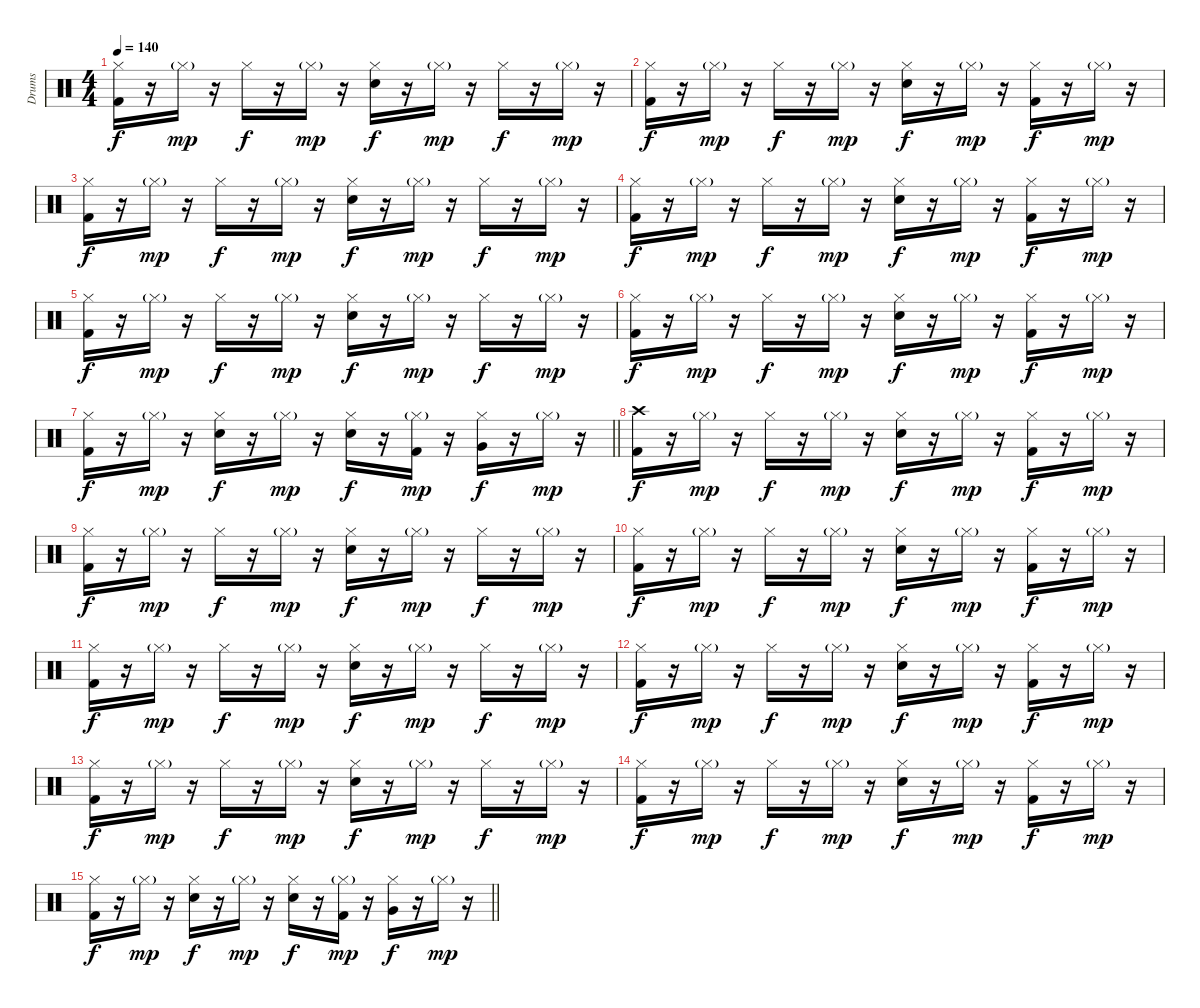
\track ("Drums" "Drums") {instrument percussion}
\staff {score}
\articulation defaults
\ts (4 4)
\tempo 140
\clef neutral
\ks c
("Hi-Hat (closed)" "Kick (hit) 2").16{dy f} r.16 "Hi-Hat (closed)"{g}.16{dy mp} r.16 "Hi-Hat (closed)".16{dy f} r.16 "Hi-Hat (closed)"{g}.16{dy mp} r.16 ("Hi-Hat (closed)" "Snare (hit) 2").16{dy f} r.16 "Hi-Hat (closed)"{g}.16{dy mp} r.16 "Hi-Hat (closed)".16{dy f} r.16 "Hi-Hat (closed)"{g}.16{dy mp} r.16 |
("Hi-Hat (closed)" "Kick (hit) 2").16{dy f} r.16 "Hi-Hat (closed)"{g}.16{dy mp} r.16 "Hi-Hat (closed)".16{dy f} r.16 "Hi-Hat (closed)"{g}.16{dy mp} r.16 ("Hi-Hat (closed)" "Snare (hit) 2").16{dy f} r.16 "Hi-Hat (closed)"{g}.16{dy mp} r.16 ("Hi-Hat (closed)" "Kick (hit) 2").16{dy f} r.16 "Hi-Hat (closed)"{g}.16{dy mp} r.16 |
("Hi-Hat (closed)" "Kick (hit) 2").16{dy f} r.16 "Hi-Hat (closed)"{g}.16{dy mp} r.16 "Hi-Hat (closed)".16{dy f} r.16 "Hi-Hat (closed)"{g}.16{dy mp} r.16 ("Hi-Hat (closed)" "Snare (hit) 2").16{dy f} r.16 "Hi-Hat (closed)"{g}.16{dy mp} r.16 "Hi-Hat (closed)".16{dy f} r.16 "Hi-Hat (closed)"{g}.16{dy mp} r.16 |
("Hi-Hat (closed)" "Kick (hit) 2").16{dy f} r.16 "Hi-Hat (closed)"{g}.16{dy mp} r.16 "Hi-Hat (closed)".16{dy f} r.16 "Hi-Hat (closed)"{g}.16{dy mp} r.16 ("Hi-Hat (closed)" "Snare (hit) 2").16{dy f} r.16 "Hi-Hat (closed)"{g}.16{dy mp} r.16 ("Hi-Hat (closed)" "Kick (hit) 2").16{dy f} r.16 "Hi-Hat (closed)"{g}.16{dy mp} r.16 |
("Hi-Hat (closed)" "Kick (hit) 2").16{dy f} r.16 "Hi-Hat (closed)"{g}.16{dy mp} r.16 "Hi-Hat (closed)".16{dy f} r.16 "Hi-Hat (closed)"{g}.16{dy mp} r.16 ("Hi-Hat (closed)" "Snare (hit) 2").16{dy f} r.16 "Hi-Hat (closed)"{g}.16{dy mp} r.16 "Hi-Hat (closed)".16{dy f} r.16 "Hi-Hat (closed)"{g}.16{dy mp} r.16 |
("Hi-Hat (closed)" "Kick (hit) 2").16{dy f} r.16 "Hi-Hat (closed)"{g}.16{dy mp} r.16 "Hi-Hat (closed)".16{dy f} r.16 "Hi-Hat (closed)"{g}.16{dy mp} r.16 ("Hi-Hat (closed)" "Snare (hit) 2").16{dy f} r.16 "Hi-Hat (closed)"{g}.16{dy mp} r.16 ("Hi-Hat (closed)" "Kick (hit) 2").16{dy f} r.16 "Hi-Hat (closed)"{g}.16{dy mp} r.16 |
\barLineRight lightlight
("Hi-Hat (closed)" "Kick (hit) 2").16{dy f} r.16 "Hi-Hat (closed)"{g}.16{dy mp} r.16 ("Hi-Hat (closed)" "Snare (hit) 2").16{dy f} r.16 "Hi-Hat (closed)"{g}.16{dy mp} r.16 ("Hi-Hat (closed)" "Snare (hit) 2").16{dy f} r.16 ("Hi-Hat (closed)"{g} "Kick (hit) 2").16{dy mp} r.16 ("Hi-Hat (closed)" "Very Low Tom (hit)").16{dy f} r.16 "Hi-Hat (closed)"{g}.16{dy mp} r.16 |
("Crash high (hit)" "Kick (hit) 2").16{dy f} r.16 "Hi-Hat (closed)"{g}.16{dy mp} r.16 "Hi-Hat (closed)".16{dy f} r.16 "Hi-Hat (closed)"{g}.16{dy mp} r.16 ("Hi-Hat (closed)" "Snare (hit) 2").16{dy f} r.16 "Hi-Hat (closed)"{g}.16{dy mp} r.16 ("Hi-Hat (closed)" "Kick (hit) 2").16{dy f} r.16 "Hi-Hat (closed)"{g}.16{dy mp} r.16 |
("Hi-Hat (closed)" "Kick (hit) 2").16{dy f} r.16 "Hi-Hat (closed)"{g}.16{dy mp} r.16 "Hi-Hat (closed)".16{dy f} r.16 "Hi-Hat (closed)"{g}.16{dy mp} r.16 ("Hi-Hat (closed)" "Snare (hit) 2").16{dy f} r.16 "Hi-Hat (closed)"{g}.16{dy mp} r.16 "Hi-Hat (closed)".16{dy f} r.16 "Hi-Hat (closed)"{g}.16{dy mp} r.16 |
("Hi-Hat (closed)" "Kick (hit) 2").16{dy f} r.16 "Hi-Hat (closed)"{g}.16{dy mp} r.16 "Hi-Hat (closed)".16{dy f} r.16 "Hi-Hat (closed)"{g}.16{dy mp} r.16 ("Hi-Hat (closed)" "Snare (hit) 2").16{dy f} r.16 "Hi-Hat (closed)"{g}.16{dy mp} r.16 ("Hi-Hat (closed)" "Kick (hit) 2").16{dy f} r.16 "Hi-Hat (closed)"{g}.16{dy mp} r.16 |
("Hi-Hat (closed)" "Kick (hit) 2").16{dy f} r.16 "Hi-Hat (closed)"{g}.16{dy mp} r.16 "Hi-Hat (closed)".16{dy f} r.16 "Hi-Hat (closed)"{g}.16{dy mp} r.16 ("Hi-Hat (closed)" "Snare (hit) 2").16{dy f} r.16 "Hi-Hat (closed)"{g}.16{dy mp} r.16 "Hi-Hat (closed)".16{dy f} r.16 "Hi-Hat (closed)"{g}.16{dy mp} r.16 |
("Hi-Hat (closed)" "Kick (hit) 2").16{dy f} r.16 "Hi-Hat (closed)"{g}.16{dy mp} r.16 "Hi-Hat (closed)".16{dy f} r.16 "Hi-Hat (closed)"{g}.16{dy mp} r.16 ("Hi-Hat (closed)" "Snare (hit) 2").16{dy f} r.16 "Hi-Hat (closed)"{g}.16{dy mp} r.16 ("Hi-Hat (closed)" "Kick (hit) 2").16{dy f} r.16 "Hi-Hat (closed)"{g}.16{dy mp} r.16 |
("Hi-Hat (closed)" "Kick (hit) 2").16{dy f} r.16 "Hi-Hat (closed)"{g}.16{dy mp} r.16 "Hi-Hat (closed)".16{dy f} r.16 "Hi-Hat (closed)"{g}.16{dy mp} r.16 ("Hi-Hat (closed)" "Snare (hit) 2").16{dy f} r.16 "Hi-Hat (closed)"{g}.16{dy mp} r.16 "Hi-Hat (closed)".16{dy f} r.16 "Hi-Hat (closed)"{g}.16{dy mp} r.16 |
("Hi-Hat (closed)" "Kick (hit) 2").16{dy f} r.16 "Hi-Hat (closed)"{g}.16{dy mp} r.16 "Hi-Hat (closed)".16{dy f} r.16 "Hi-Hat (closed)"{g}.16{dy mp} r.16 ("Hi-Hat (closed)" "Snare (hit) 2").16{dy f} r.16 "Hi-Hat (closed)"{g}.16{dy mp} r.16 ("Hi-Hat (closed)" "Kick (hit) 2").16{dy f} r.16 "Hi-Hat (closed)"{g}.16{dy mp} r.16 |
\barLineRight lightlight
("Hi-Hat (closed)" "Kick (hit) 2").16{dy f} r.16 "Hi-Hat (closed)"{g}.16{dy mp} r.16 ("Hi-Hat (closed)" "Snare (hit) 2").16{dy f} r.16 "Hi-Hat (closed)"{g}.16{dy mp} r.16 ("Hi-Hat (closed)" "Snare (hit) 2").16{dy f} r.16 ("Hi-Hat (closed)"{g} "Kick (hit) 2").16{dy mp} r.16 ("Hi-Hat (closed)" "Very Low Tom (hit)").16{dy f} r.16 "Hi-Hat (closed)"{g}.16{dy mp} r.16
